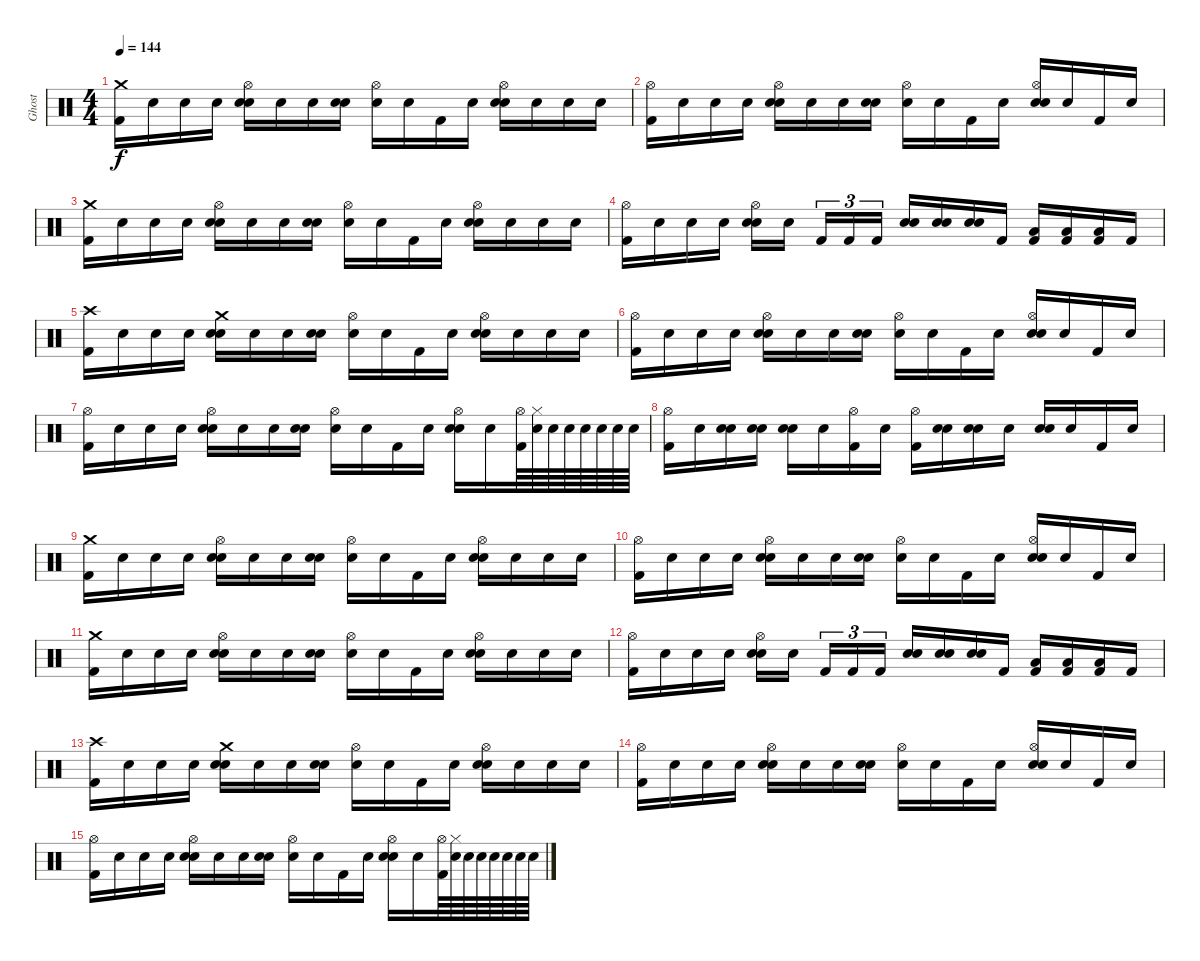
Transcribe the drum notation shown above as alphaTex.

\track ("Ghost" "Ghost") {instrument percussion}
\staff {score}
\articulation defaults
\ts (4 4)
\tempo 144
\clef neutral
\ks c
("Crash medium (hit)" "Kick (hit) 2").16{dy f} "Snare (hit)".16 "Snare (hit)".16 "Snare (hit)".16 ("Hi-Hat (open)" "Electric Snare (hit)" "Snare (hit)").16 "Snare (hit)".16 "Snare (hit)".16 ("Electric Snare (hit)" "Snare (hit)").16 ("Hi-Hat (open)" "Snare (hit)").16 "Snare (hit)".16 "Kick (hit) 2".16 "Snare (hit)".16 ("Hi-Hat (open)" "Electric Snare (hit)" "Snare (hit)").16 "Snare (hit)".16 "Snare (hit)".16 "Snare (hit)".16 |
("Hi-Hat (open)" "Kick (hit) 2").16 "Snare (hit)".16 "Snare (hit)".16 "Snare (hit)".16 ("Hi-Hat (open)" "Electric Snare (hit)" "Snare (hit)").16 "Snare (hit)".16 "Snare (hit)".16 ("Electric Snare (hit)" "Snare (hit)").16 ("Hi-Hat (open)" "Snare (hit)").16 "Snare (hit)".16 "Kick (hit) 2".16 "Snare (hit)".16 ("Hi-Hat (open)" "Electric Snare (hit)" "Snare (hit)").16 "Snare (hit)".16 "Kick (hit) 2".16 "Snare (hit)".16 |
("Crash medium (hit)" "Kick (hit) 2").16 "Snare (hit)".16 "Snare (hit)".16 "Snare (hit)".16 ("Hi-Hat (open)" "Electric Snare (hit)" "Snare (hit)").16 "Snare (hit)".16 "Snare (hit)".16 ("Electric Snare (hit)" "Snare (hit)").16 ("Hi-Hat (open)" "Snare (hit)").16 "Snare (hit)".16 "Kick (hit) 2".16 "Snare (hit)".16 ("Hi-Hat (open)" "Electric Snare (hit)" "Snare (hit)").16 "Snare (hit)".16 "Snare (hit)".16 "Snare (hit)".16 |
("Hi-Hat (open)" "Kick (hit) 2").16 "Snare (hit)".16 "Snare (hit)".16 "Snare (hit)".16 ("Hi-Hat (open)" "Electric Snare (hit)" "Snare (hit)").16 "Snare (hit)".16{beam splitsecondary} "Kick (hit) 2".16{tu (3 2)} "Kick (hit) 2".16{tu (3 2)} "Kick (hit) 2".16{tu (3 2)} ("Electric Snare (hit)" "Snare (hit)").16 ("Electric Snare (hit)" "Snare (hit)").16 ("Electric Snare (hit)" "Snare (hit)").16 "Kick (hit) 2".16 ("Low Tom (hit)" "Kick (hit) 2").16 ("Low Tom (hit)" "Kick (hit) 2").16 ("Low Tom (hit)" "Kick (hit) 2").16 "Kick (hit) 2".16 |
("Crash high (hit)" "Kick (hit) 2").16 "Snare (hit)".16 "Snare (hit)".16 "Snare (hit)".16 ("Crash medium (hit)" "Electric Snare (hit)" "Snare (hit)").16 "Snare (hit)".16 "Snare (hit)".16 ("Electric Snare (hit)" "Snare (hit)").16 ("Hi-Hat (open)" "Snare (hit)").16 "Snare (hit)".16 "Kick (hit) 2".16 "Snare (hit)".16 ("Hi-Hat (open)" "Electric Snare (hit)" "Snare (hit)").16 "Snare (hit)".16 "Snare (hit)".16 "Snare (hit)".16 |
("Hi-Hat (open)" "Kick (hit) 2").16 "Snare (hit)".16 "Snare (hit)".16 "Snare (hit)".16 ("Hi-Hat (open)" "Electric Snare (hit)" "Snare (hit)").16 "Snare (hit)".16 "Snare (hit)".16 ("Electric Snare (hit)" "Snare (hit)").16 ("Hi-Hat (open)" "Snare (hit)").16 "Snare (hit)".16 "Kick (hit) 2".16 "Snare (hit)".16 ("Hi-Hat (open)" "Electric Snare (hit)" "Snare (hit)").16 "Snare (hit)".16 "Kick (hit) 2".16 "Snare (hit)".16 |
("Hi-Hat (open)" "Kick (hit) 2").16 "Snare (hit)".16 "Snare (hit)".16 "Snare (hit)".16 ("Hi-Hat (open)" "Electric Snare (hit)" "Snare (hit)").16 "Snare (hit)".16 "Snare (hit)".16 ("Electric Snare (hit)" "Snare (hit)").16 ("Hi-Hat (open)" "Snare (hit)").16 "Snare (hit)".16 "Kick (hit) 2".16 "Snare (hit)".16 ("Hi-Hat (open)" "Electric Snare (hit)" "Snare (hit)").16 "Snare (hit)".16 ("Hi-Hat (open)" "Kick (hit) 2").64 ("Hi-Hat (closed)" "Snare (hit)").64 "Snare (hit)".64 "Snare (hit)".64 "Snare (hit)".64 "Snare (hit)".64 "Snare (hit)".64 "Snare (hit)".64 |
("Hi-Hat (open)" "Kick (hit) 2").16 "Snare (hit)".16 ("Electric Snare (hit)" "Snare (hit)").16 ("Electric Snare (hit)" "Snare (hit)").16 ("Electric Snare (hit)" "Snare (hit)").16 "Snare (hit)".16 ("Hi-Hat (open)" "Kick (hit) 2").16 "Snare (hit)".16 ("Hi-Hat (open)" "Kick (hit) 2").16 ("Electric Snare (hit)" "Snare (hit)").16 ("Electric Snare (hit)" "Snare (hit)").16 "Snare (hit)".16 ("Electric Snare (hit)" "Snare (hit)").16 "Snare (hit)".16 "Kick (hit) 2".16 "Snare (hit)".16 |
("Crash medium (hit)" "Kick (hit) 2").16 "Snare (hit)".16 "Snare (hit)".16 "Snare (hit)".16 ("Hi-Hat (open)" "Electric Snare (hit)" "Snare (hit)").16 "Snare (hit)".16 "Snare (hit)".16 ("Electric Snare (hit)" "Snare (hit)").16 ("Hi-Hat (open)" "Snare (hit)").16 "Snare (hit)".16 "Kick (hit) 2".16 "Snare (hit)".16 ("Hi-Hat (open)" "Electric Snare (hit)" "Snare (hit)").16 "Snare (hit)".16 "Snare (hit)".16 "Snare (hit)".16 |
("Hi-Hat (open)" "Kick (hit) 2").16 "Snare (hit)".16 "Snare (hit)".16 "Snare (hit)".16 ("Hi-Hat (open)" "Electric Snare (hit)" "Snare (hit)").16 "Snare (hit)".16 "Snare (hit)".16 ("Electric Snare (hit)" "Snare (hit)").16 ("Hi-Hat (open)" "Snare (hit)").16 "Snare (hit)".16 "Kick (hit) 2".16 "Snare (hit)".16 ("Hi-Hat (open)" "Electric Snare (hit)" "Snare (hit)").16 "Snare (hit)".16 "Kick (hit) 2".16 "Snare (hit)".16 |
("Crash medium (hit)" "Kick (hit) 2").16 "Snare (hit)".16 "Snare (hit)".16 "Snare (hit)".16 ("Hi-Hat (open)" "Electric Snare (hit)" "Snare (hit)").16 "Snare (hit)".16 "Snare (hit)".16 ("Electric Snare (hit)" "Snare (hit)").16 ("Hi-Hat (open)" "Snare (hit)").16 "Snare (hit)".16 "Kick (hit) 2".16 "Snare (hit)".16 ("Hi-Hat (open)" "Electric Snare (hit)" "Snare (hit)").16 "Snare (hit)".16 "Snare (hit)".16 "Snare (hit)".16 |
("Hi-Hat (open)" "Kick (hit) 2").16 "Snare (hit)".16 "Snare (hit)".16 "Snare (hit)".16 ("Hi-Hat (open)" "Electric Snare (hit)" "Snare (hit)").16 "Snare (hit)".16{beam splitsecondary} "Kick (hit) 2".16{tu (3 2)} "Kick (hit) 2".16{tu (3 2)} "Kick (hit) 2".16{tu (3 2)} ("Electric Snare (hit)" "Snare (hit)").16 ("Electric Snare (hit)" "Snare (hit)").16 ("Electric Snare (hit)" "Snare (hit)").16 "Kick (hit) 2".16 ("Low Tom (hit)" "Kick (hit) 2").16 ("Low Tom (hit)" "Kick (hit) 2").16 ("Low Tom (hit)" "Kick (hit) 2").16 "Kick (hit) 2".16 |
("Crash high (hit)" "Kick (hit) 2").16 "Snare (hit)".16 "Snare (hit)".16 "Snare (hit)".16 ("Crash medium (hit)" "Electric Snare (hit)" "Snare (hit)").16 "Snare (hit)".16 "Snare (hit)".16 ("Electric Snare (hit)" "Snare (hit)").16 ("Hi-Hat (open)" "Snare (hit)").16 "Snare (hit)".16 "Kick (hit) 2".16 "Snare (hit)".16 ("Hi-Hat (open)" "Electric Snare (hit)" "Snare (hit)").16 "Snare (hit)".16 "Snare (hit)".16 "Snare (hit)".16 |
("Hi-Hat (open)" "Kick (hit) 2").16 "Snare (hit)".16 "Snare (hit)".16 "Snare (hit)".16 ("Hi-Hat (open)" "Electric Snare (hit)" "Snare (hit)").16 "Snare (hit)".16 "Snare (hit)".16 ("Electric Snare (hit)" "Snare (hit)").16 ("Hi-Hat (open)" "Snare (hit)").16 "Snare (hit)".16 "Kick (hit) 2".16 "Snare (hit)".16 ("Hi-Hat (open)" "Electric Snare (hit)" "Snare (hit)").16 "Snare (hit)".16 "Kick (hit) 2".16 "Snare (hit)".16 |
("Hi-Hat (open)" "Kick (hit) 2").16 "Snare (hit)".16 "Snare (hit)".16 "Snare (hit)".16 ("Hi-Hat (open)" "Electric Snare (hit)" "Snare (hit)").16 "Snare (hit)".16 "Snare (hit)".16 ("Electric Snare (hit)" "Snare (hit)").16 ("Hi-Hat (open)" "Snare (hit)").16 "Snare (hit)".16 "Kick (hit) 2".16 "Snare (hit)".16 ("Hi-Hat (open)" "Electric Snare (hit)" "Snare (hit)").16 "Snare (hit)".16 ("Hi-Hat (open)" "Kick (hit) 2").64 ("Hi-Hat (closed)" "Snare (hit)").64 "Snare (hit)".64 "Snare (hit)".64 "Snare (hit)".64 "Snare (hit)".64 "Snare (hit)".64 "Snare (hit)".64
